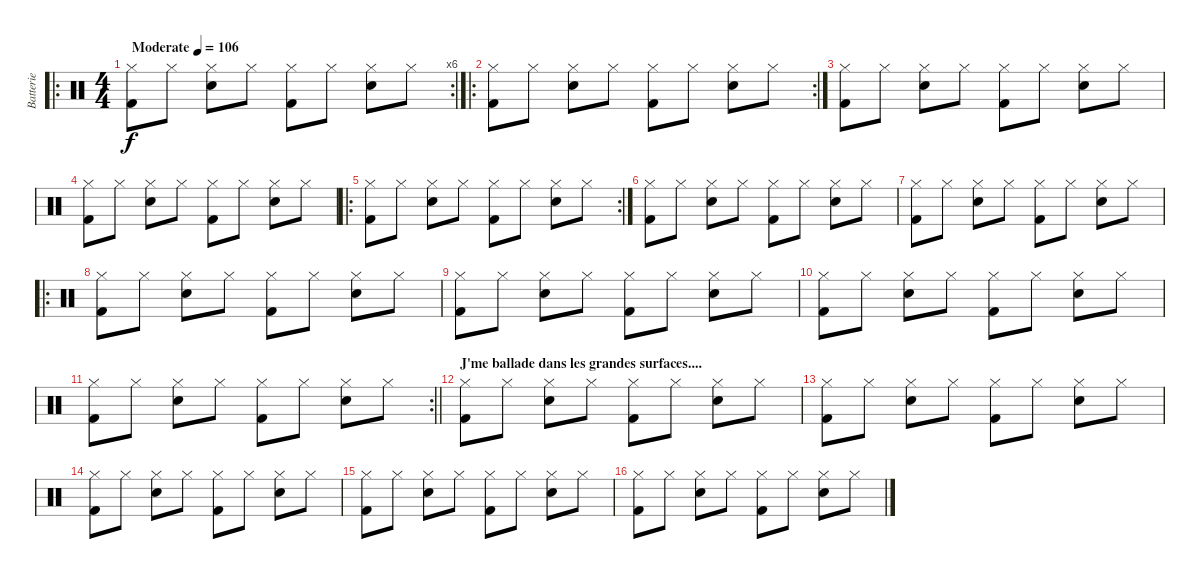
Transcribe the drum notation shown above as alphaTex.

\track ("Batterie" "Batterie") {instrument percussion}
\staff {score}
\articulation defaults
\ro
\rc 6
\ts (4 4)
\section ("" "")
\tempo (106 "Moderate")
\clef neutral
\ks c
("Hi-Hat (closed)" "Kick (hit) 2").8{dy f} "Hi-Hat (closed)".8 ("Hi-Hat (closed)" "Electric Snare (hit)").8 "Hi-Hat (closed)".8 ("Hi-Hat (closed)" "Kick (hit) 2").8 "Hi-Hat (closed)".8 ("Hi-Hat (closed)" "Electric Snare (hit)").8 "Hi-Hat (closed)".8 |
\ro
\rc 2
("Hi-Hat (closed)" "Kick (hit) 2").8 "Hi-Hat (closed)".8 ("Hi-Hat (closed)" "Electric Snare (hit)").8 "Hi-Hat (closed)".8 ("Hi-Hat (closed)" "Kick (hit) 2").8 "Hi-Hat (closed)".8 ("Hi-Hat (closed)" "Electric Snare (hit)").8 "Hi-Hat (closed)".8 |
("Hi-Hat (closed)" "Kick (hit) 2").8 "Hi-Hat (closed)".8 ("Hi-Hat (closed)" "Electric Snare (hit)").8 "Hi-Hat (closed)".8 ("Hi-Hat (closed)" "Kick (hit) 2").8 "Hi-Hat (closed)".8 ("Hi-Hat (closed)" "Electric Snare (hit)").8 "Hi-Hat (closed)".8 |
("Hi-Hat (closed)" "Kick (hit) 2").8 "Hi-Hat (closed)".8 ("Hi-Hat (closed)" "Electric Snare (hit)").8 "Hi-Hat (closed)".8 ("Hi-Hat (closed)" "Kick (hit) 2").8 "Hi-Hat (closed)".8 ("Hi-Hat (closed)" "Electric Snare (hit)").8 "Hi-Hat (closed)".8 |
\ro
\rc 2
("Hi-Hat (closed)" "Kick (hit) 2").8 "Hi-Hat (closed)".8 ("Hi-Hat (closed)" "Electric Snare (hit)").8 "Hi-Hat (closed)".8 ("Hi-Hat (closed)" "Kick (hit) 2").8 "Hi-Hat (closed)".8 ("Hi-Hat (closed)" "Electric Snare (hit)").8 "Hi-Hat (closed)".8 |
("Hi-Hat (closed)" "Kick (hit) 2").8 "Hi-Hat (closed)".8 ("Hi-Hat (closed)" "Electric Snare (hit)").8 "Hi-Hat (closed)".8 ("Hi-Hat (closed)" "Kick (hit) 2").8 "Hi-Hat (closed)".8 ("Hi-Hat (closed)" "Electric Snare (hit)").8 "Hi-Hat (closed)".8 |
("Hi-Hat (closed)" "Kick (hit) 2").8 "Hi-Hat (closed)".8 ("Hi-Hat (closed)" "Electric Snare (hit)").8 "Hi-Hat (closed)".8 ("Hi-Hat (closed)" "Kick (hit) 2").8 "Hi-Hat (closed)".8 ("Hi-Hat (closed)" "Electric Snare (hit)").8 "Hi-Hat (closed)".8 |
\ro
("Hi-Hat (closed)" "Kick (hit) 2").8 "Hi-Hat (closed)".8 ("Hi-Hat (closed)" "Electric Snare (hit)").8 "Hi-Hat (closed)".8 ("Hi-Hat (closed)" "Kick (hit) 2").8 "Hi-Hat (closed)".8 ("Hi-Hat (closed)" "Electric Snare (hit)").8 "Hi-Hat (closed)".8 |
("Hi-Hat (closed)" "Kick (hit) 2").8 "Hi-Hat (closed)".8 ("Hi-Hat (closed)" "Electric Snare (hit)").8 "Hi-Hat (closed)".8 ("Hi-Hat (closed)" "Kick (hit) 2").8 "Hi-Hat (closed)".8 ("Hi-Hat (closed)" "Electric Snare (hit)").8 "Hi-Hat (closed)".8 |
("Hi-Hat (closed)" "Kick (hit) 2").8 "Hi-Hat (closed)".8 ("Hi-Hat (closed)" "Electric Snare (hit)").8 "Hi-Hat (closed)".8 ("Hi-Hat (closed)" "Kick (hit) 2").8 "Hi-Hat (closed)".8 ("Hi-Hat (closed)" "Electric Snare (hit)").8 "Hi-Hat (closed)".8 |
\rc 2
\barLineRight lightlight
("Hi-Hat (closed)" "Kick (hit) 2").8 "Hi-Hat (closed)".8 ("Hi-Hat (closed)" "Electric Snare (hit)").8 "Hi-Hat (closed)".8 ("Hi-Hat (closed)" "Kick (hit) 2").8 "Hi-Hat (closed)".8 ("Hi-Hat (closed)" "Electric Snare (hit)").8 "Hi-Hat (closed)".8 |
\section ("" "J'me ballade dans les grandes surfaces....")
("Hi-Hat (closed)" "Kick (hit) 2").8 "Hi-Hat (closed)".8 ("Hi-Hat (closed)" "Electric Snare (hit)").8 "Hi-Hat (closed)".8 ("Hi-Hat (closed)" "Kick (hit) 2").8 "Hi-Hat (closed)".8 ("Hi-Hat (closed)" "Electric Snare (hit)").8 "Hi-Hat (closed)".8 |
("Hi-Hat (closed)" "Kick (hit) 2").8 "Hi-Hat (closed)".8 ("Hi-Hat (closed)" "Electric Snare (hit)").8 "Hi-Hat (closed)".8 ("Hi-Hat (closed)" "Kick (hit) 2").8 "Hi-Hat (closed)".8 ("Hi-Hat (closed)" "Electric Snare (hit)").8 "Hi-Hat (closed)".8 |
("Hi-Hat (closed)" "Kick (hit) 2").8 "Hi-Hat (closed)".8 ("Hi-Hat (closed)" "Electric Snare (hit)").8 "Hi-Hat (closed)".8 ("Hi-Hat (closed)" "Kick (hit) 2").8 "Hi-Hat (closed)".8 ("Hi-Hat (closed)" "Electric Snare (hit)").8 "Hi-Hat (closed)".8 |
("Hi-Hat (closed)" "Kick (hit) 2").8 "Hi-Hat (closed)".8 ("Hi-Hat (closed)" "Electric Snare (hit)").8 "Hi-Hat (closed)".8 ("Hi-Hat (closed)" "Kick (hit) 2").8 "Hi-Hat (closed)".8 ("Hi-Hat (closed)" "Electric Snare (hit)").8 "Hi-Hat (closed)".8 |
("Hi-Hat (closed)" "Kick (hit) 2").8 "Hi-Hat (closed)".8 ("Hi-Hat (closed)" "Electric Snare (hit)").8 "Hi-Hat (closed)".8 ("Hi-Hat (closed)" "Kick (hit) 2").8 "Hi-Hat (closed)".8 ("Hi-Hat (closed)" "Electric Snare (hit)").8 "Hi-Hat (closed)".8
